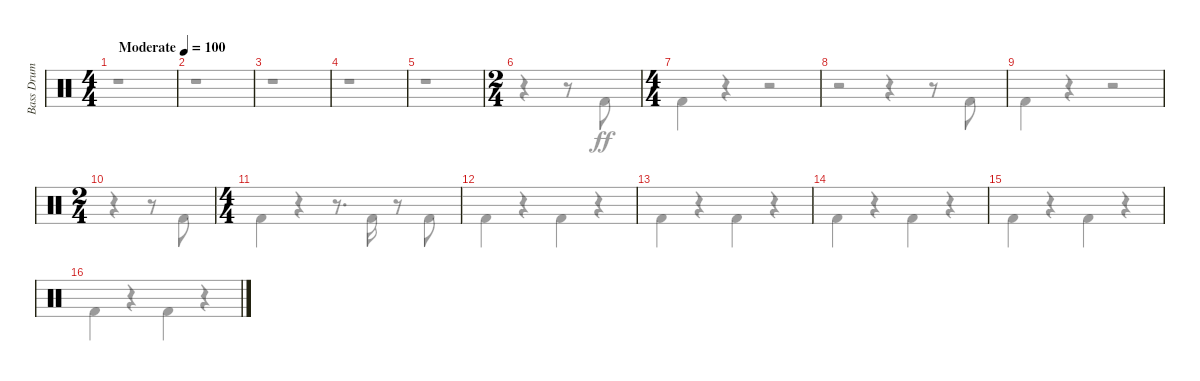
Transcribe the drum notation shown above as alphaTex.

\track ("Bass Drum" "Bass Drum") {instrument percussion}
\staff {score}
\articulation defaults
\voice
\ts (4 4)
\tempo (100 "Moderate")
\clef neutral
\ks aminor
|
\ks c
|
|
|
|
\ts (2 4)
|
\ts (4 4)
|
|
|
\ts (2 4)
|
\ts (4 4)
|
|
|
|
|
\voice
\clef neutral
\ks aminor
r.1{dy ff} |
\ks c
r.1 |
r.1 |
r.1 |
r.1 |
r.4 r.8 "Kick (hit) 2".8 |
"Kick (hit) 2".4 r.4 r.2 |
r.2 r.4 r.8 "Kick (hit) 2".8 |
"Kick (hit) 2".4 r.4 r.2 |
r.4 r.8 "Kick (hit) 2".8 |
"Kick (hit) 2".4 r.4 r.8{d} "Kick (hit) 2".16 r.8 "Kick (hit) 2".8 |
"Kick (hit) 2".4 r.4 "Kick (hit) 2".4 r.4 |
"Kick (hit) 2".4 r.4 "Kick (hit) 2".4 r.4 |
"Kick (hit) 2".4 r.4 "Kick (hit) 2".4 r.4 |
"Kick (hit) 2".4 r.4 "Kick (hit) 2".4 r.4 |
"Kick (hit) 2".4 r.4 "Kick (hit) 2".4 r.4
